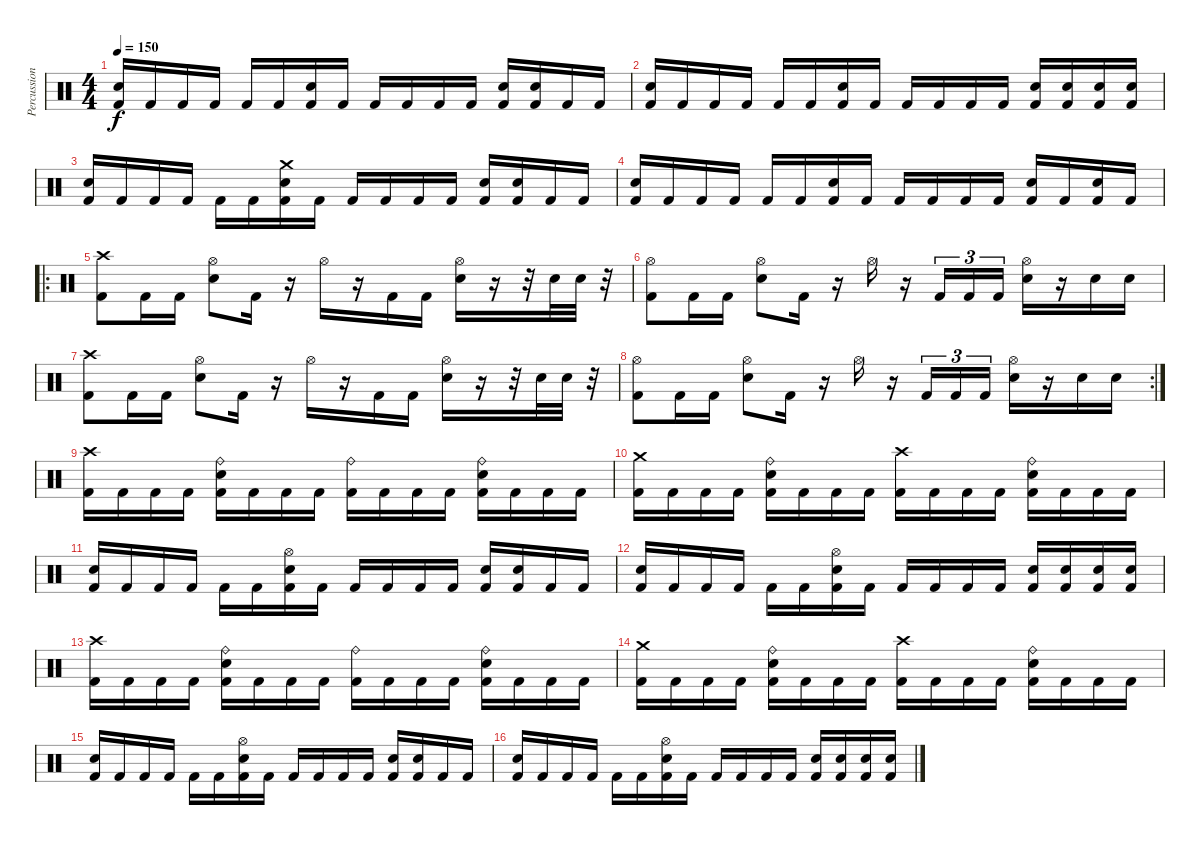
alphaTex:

\track ("Percussion" "Percussion") {instrument percussion}
\staff {score}
\articulation defaults
\ts (4 4)
\tempo 150
\clef neutral
\ks c
("Snare (hit) 2" "Kick (hit) 2").16{dy f} "Kick (hit) 2".16 "Kick (hit) 2".16 "Kick (hit) 2".16 "Kick (hit) 2".16 "Kick (hit) 2".16 ("Snare (hit) 2" "Kick (hit) 2").16 "Kick (hit) 2".16 "Kick (hit) 2".16 "Kick (hit) 2".16 "Kick (hit) 2".16 "Kick (hit) 2".16 ("Snare (hit) 2" "Kick (hit) 2").16 ("Snare (hit) 2" "Kick (hit) 2").16 "Kick (hit) 2".16 "Kick (hit) 2".16 |
("Snare (hit) 2" "Kick (hit) 2").16 "Kick (hit) 2".16 "Kick (hit) 2".16 "Kick (hit) 2".16 "Kick (hit) 2".16 "Kick (hit) 2".16 ("Snare (hit) 2" "Kick (hit) 2").16 "Kick (hit) 2".16 "Kick (hit) 2".16 "Kick (hit) 2".16 "Kick (hit) 2".16 "Kick (hit) 2".16 ("Snare (hit) 2" "Kick (hit) 2").16 ("Snare (hit) 2" "Kick (hit) 2").16 ("Snare (hit) 2" "Kick (hit) 2").16 ("Snare (hit) 2" "Kick (hit) 2").16 |
("Snare (hit) 2" "Kick (hit) 2").16 "Kick (hit) 2".16 "Kick (hit) 2".16 "Kick (hit) 2".16 "Kick (hit) 2".16 "Kick (hit) 2".16 ("Crash medium (hit)" "Snare (hit) 2" "Kick (hit) 2").16 "Kick (hit) 2".16 "Kick (hit) 2".16 "Kick (hit) 2".16 "Kick (hit) 2".16 "Kick (hit) 2".16 ("Snare (hit) 2" "Kick (hit) 2").16 ("Snare (hit) 2" "Kick (hit) 2").16 "Kick (hit) 2".16 "Kick (hit) 2".16 |
("Snare (hit) 2" "Kick (hit) 2").16 "Kick (hit) 2".16 "Kick (hit) 2".16 "Kick (hit) 2".16 "Kick (hit) 2".16 "Kick (hit) 2".16 ("Snare (hit) 2" "Kick (hit) 2").16 "Kick (hit) 2".16 "Kick (hit) 2".16 "Kick (hit) 2".16 "Kick (hit) 2".16 "Kick (hit) 2".16 ("Snare (hit) 2" "Kick (hit) 2").16 "Kick (hit) 2".16 ("Snare (hit) 2" "Kick (hit) 2").16 "Kick (hit) 2".16 |
\ro
("Crash high (hit)" "Kick (hit) 2").8 "Kick (hit) 2".16 "Kick (hit) 2".16 ("Hi-Hat (open)" "Snare (hit) 2").8 "Kick (hit) 2".16 r.16 "Hi-Hat (open)".16 r.16 "Kick (hit) 2".16 "Kick (hit) 2".16 ("Hi-Hat (open)" "Snare (hit) 2").16 r.16 r.32 "Snare (hit) 2".32 "Snare (hit) 2".32 r.32 |
("Hi-Hat (open)" "Kick (hit) 2").8 "Kick (hit) 2".16 "Kick (hit) 2".16 ("Hi-Hat (open)" "Snare (hit) 2").8 "Kick (hit) 2".16 r.16 "Hi-Hat (open)".16 r.16 "Kick (hit) 2".16{tu (3 2)} "Kick (hit) 2".16{tu (3 2)} "Kick (hit) 2".16{tu (3 2)} ("Hi-Hat (open)" "Snare (hit) 2").16 r.16 "Snare (hit) 2".16 "Snare (hit) 2".16 |
("Crash high (hit)" "Kick (hit) 2").8 "Kick (hit) 2".16 "Kick (hit) 2".16 ("Hi-Hat (open)" "Snare (hit) 2").8 "Kick (hit) 2".16 r.16 "Hi-Hat (open)".16 r.16 "Kick (hit) 2".16 "Kick (hit) 2".16 ("Hi-Hat (open)" "Snare (hit) 2").16 r.16 r.32 "Snare (hit) 2".32 "Snare (hit) 2".32 r.32 |
\rc 2
("Hi-Hat (open)" "Kick (hit) 2").8 "Kick (hit) 2".16 "Kick (hit) 2".16 ("Hi-Hat (open)" "Snare (hit) 2").8 "Kick (hit) 2".16 r.16 "Hi-Hat (open)".16 r.16 "Kick (hit) 2".16{tu (3 2)} "Kick (hit) 2".16{tu (3 2)} "Kick (hit) 2".16{tu (3 2)} ("Hi-Hat (open)" "Snare (hit) 2").16 r.16 "Snare (hit) 2".16 "Snare (hit) 2".16 |
("Crash high (hit)" "Kick (hit) 2").16 "Kick (hit) 2".16 "Kick (hit) 2".16 "Kick (hit) 2".16 ("Ride (bell)" "Snare (hit) 2" "Kick (hit) 2").16 "Kick (hit) 2".16 "Kick (hit) 2".16 "Kick (hit) 2".16 ("Ride (bell)" "Kick (hit) 2").16 "Kick (hit) 2".16 "Kick (hit) 2".16 "Kick (hit) 2".16 ("Ride (bell)" "Snare (hit) 2" "Kick (hit) 2").16 "Kick (hit) 2".16 "Kick (hit) 2".16 "Kick (hit) 2".16 |
("Crash medium (hit)" "Kick (hit) 2").16 "Kick (hit) 2".16 "Kick (hit) 2".16 "Kick (hit) 2".16 ("Ride (bell)" "Snare (hit) 2" "Kick (hit) 2").16 "Kick (hit) 2".16 "Kick (hit) 2".16 "Kick (hit) 2".16 ("Crash high (hit)" "Kick (hit) 2").16 "Kick (hit) 2".16 "Kick (hit) 2".16 "Kick (hit) 2".16 ("Ride (bell)" "Snare (hit) 2" "Kick (hit) 2").16 "Kick (hit) 2".16 "Kick (hit) 2".16 "Kick (hit) 2".16 |
("Snare (hit) 2" "Kick (hit) 2").16 "Kick (hit) 2".16 "Kick (hit) 2".16 "Kick (hit) 2".16 "Kick (hit) 2".16 "Kick (hit) 2".16 ("Hi-Hat (open)" "Snare (hit) 2" "Kick (hit) 2").16 "Kick (hit) 2".16 "Kick (hit) 2".16 "Kick (hit) 2".16 "Kick (hit) 2".16 "Kick (hit) 2".16 ("Snare (hit) 2" "Kick (hit) 2").16 ("Snare (hit) 2" "Kick (hit) 2").16 "Kick (hit) 2".16 "Kick (hit) 2".16 |
("Snare (hit) 2" "Kick (hit) 2").16 "Kick (hit) 2".16 "Kick (hit) 2".16 "Kick (hit) 2".16 "Kick (hit) 2".16 "Kick (hit) 2".16 ("Hi-Hat (open)" "Snare (hit) 2" "Kick (hit) 2").16 "Kick (hit) 2".16 "Kick (hit) 2".16 "Kick (hit) 2".16 "Kick (hit) 2".16 "Kick (hit) 2".16 ("Snare (hit) 2" "Kick (hit) 2").16 ("Snare (hit) 2" "Kick (hit) 2").16 ("Snare (hit) 2" "Kick (hit) 2").16 ("Snare (hit) 2" "Kick (hit) 2").16 |
("Crash high (hit)" "Kick (hit) 2").16 "Kick (hit) 2".16 "Kick (hit) 2".16 "Kick (hit) 2".16 ("Ride (bell)" "Snare (hit) 2" "Kick (hit) 2").16 "Kick (hit) 2".16 "Kick (hit) 2".16 "Kick (hit) 2".16 ("Ride (bell)" "Kick (hit) 2").16 "Kick (hit) 2".16 "Kick (hit) 2".16 "Kick (hit) 2".16 ("Ride (bell)" "Snare (hit) 2" "Kick (hit) 2").16 "Kick (hit) 2".16 "Kick (hit) 2".16 "Kick (hit) 2".16 |
("Crash medium (hit)" "Kick (hit) 2").16 "Kick (hit) 2".16 "Kick (hit) 2".16 "Kick (hit) 2".16 ("Ride (bell)" "Snare (hit) 2" "Kick (hit) 2").16 "Kick (hit) 2".16 "Kick (hit) 2".16 "Kick (hit) 2".16 ("Crash high (hit)" "Kick (hit) 2").16 "Kick (hit) 2".16 "Kick (hit) 2".16 "Kick (hit) 2".16 ("Ride (bell)" "Snare (hit) 2" "Kick (hit) 2").16 "Kick (hit) 2".16 "Kick (hit) 2".16 "Kick (hit) 2".16 |
("Snare (hit) 2" "Kick (hit) 2").16 "Kick (hit) 2".16 "Kick (hit) 2".16 "Kick (hit) 2".16 "Kick (hit) 2".16 "Kick (hit) 2".16 ("Hi-Hat (open)" "Snare (hit) 2" "Kick (hit) 2").16 "Kick (hit) 2".16 "Kick (hit) 2".16 "Kick (hit) 2".16 "Kick (hit) 2".16 "Kick (hit) 2".16 ("Snare (hit) 2" "Kick (hit) 2").16 ("Snare (hit) 2" "Kick (hit) 2").16 "Kick (hit) 2".16 "Kick (hit) 2".16 |
("Snare (hit) 2" "Kick (hit) 2").16 "Kick (hit) 2".16 "Kick (hit) 2".16 "Kick (hit) 2".16 "Kick (hit) 2".16 "Kick (hit) 2".16 ("Hi-Hat (open)" "Snare (hit) 2" "Kick (hit) 2").16 "Kick (hit) 2".16 "Kick (hit) 2".16 "Kick (hit) 2".16 "Kick (hit) 2".16 "Kick (hit) 2".16 ("Snare (hit) 2" "Kick (hit) 2").16 ("Snare (hit) 2" "Kick (hit) 2").16 ("Snare (hit) 2" "Kick (hit) 2").16 ("Snare (hit) 2" "Kick (hit) 2").16
